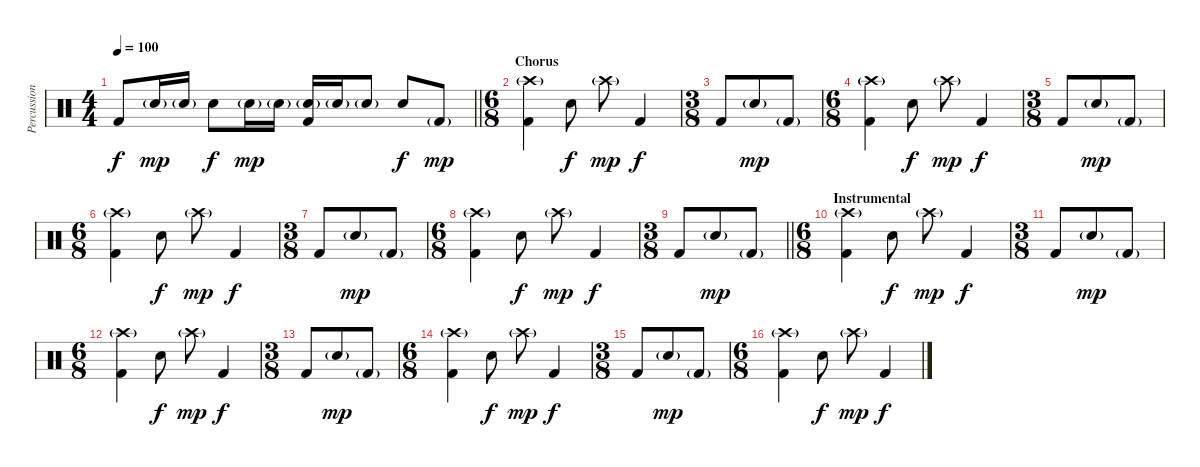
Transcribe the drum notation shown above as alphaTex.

\track ("Percussion" "Percussion") {instrument percussion}
\staff {score}
\articulation defaults
\ts (4 4)
\tempo 100
\clef neutral
\barLineRight lightlight
\ks c "Kick (hit) 2".8{dy f} "Snare (hit) 2"{g}.16{dy mp} "Snare (hit) 2"{g}.16 "Snare (hit) 2".8{dy f} "Snare (hit) 2"{g}.16{dy mp} "Snare (hit) 2"{g}.16
("Snare (hit) 2"{g} "Kick (hit) 2").16 "Snare (hit) 2"{g}.16 "Snare (hit) 2"{g}.8 "Snare (hit) 2".8{dy f} "Kick (hit) 2"{g}.8{dy mp} |
\ts (6 8)
\section ("" "Chorus")
("Crash high (hit)"{g} "Kick (hit) 2").4 "Snare (hit) 2".8{dy f} "Crash high (hit)"{g}.8{dy mp} "Kick (hit) 2".4{dy f} |
\ts (3 8)
"Kick (hit) 2".8 "Snare (hit) 2"{g}.8{dy mp} "Kick (hit) 2"{g}.8 |
\ts (6 8)
("Crash high (hit)"{g} "Kick (hit) 2").4 "Snare (hit) 2".8{dy f} "Crash high (hit)"{g}.8{dy mp} "Kick (hit) 2".4{dy f} |
\ts (3 8)
"Kick (hit) 2".8 "Snare (hit) 2"{g}.8{dy mp} "Kick (hit) 2"{g}.8 |
\ts (6 8)
("Crash high (hit)"{g} "Kick (hit) 2").4 "Snare (hit) 2".8{dy f} "Crash high (hit)"{g}.8{dy mp} "Kick (hit) 2".4{dy f} |
\ts (3 8)
"Kick (hit) 2".8 "Snare (hit) 2"{g}.8{dy mp} "Kick (hit) 2"{g}.8 |
\ts (6 8)
("Crash high (hit)"{g} "Kick (hit) 2").4 "Snare (hit) 2".8{dy f} "Crash high (hit)"{g}.8{dy mp} "Kick (hit) 2".4{dy f} |
\ts (3 8)
\barLineRight lightlight "Kick (hit) 2".8 "Snare (hit) 2"{g}.8{dy mp} "Kick (hit) 2"{g}.8
|
\ts (6 8)
\section ("" "Instrumental")
("Crash high (hit)"{g} "Kick (hit) 2").4 "Snare (hit) 2".8{dy f} "Crash high (hit)"{g}.8{dy mp} "Kick (hit) 2".4{dy f} |
\ts (3 8)
"Kick (hit) 2".8 "Snare (hit) 2"{g}.8{dy mp} "Kick (hit) 2"{g}.8 |
\ts (6 8)
("Crash high (hit)"{g} "Kick (hit) 2").4 "Snare (hit) 2".8{dy f} "Crash high (hit)"{g}.8{dy mp} "Kick (hit) 2".4{dy f} |
\ts (3 8)
"Kick (hit) 2".8 "Snare (hit) 2"{g}.8{dy mp} "Kick (hit) 2"{g}.8 |
\ts (6 8)
("Crash high (hit)"{g} "Kick (hit) 2").4 "Snare (hit) 2".8{dy f} "Crash high (hit)"{g}.8{dy mp} "Kick (hit) 2".4{dy f} |
\ts (3 8)
"Kick (hit) 2".8 "Snare (hit) 2"{g}.8{dy mp} "Kick (hit) 2"{g}.8 |
\ts (6 8)
("Crash high (hit)"{g} "Kick (hit) 2").4 "Snare (hit) 2".8{dy f} "Crash high (hit)"{g}.8{dy mp} "Kick (hit) 2".4{dy f}
